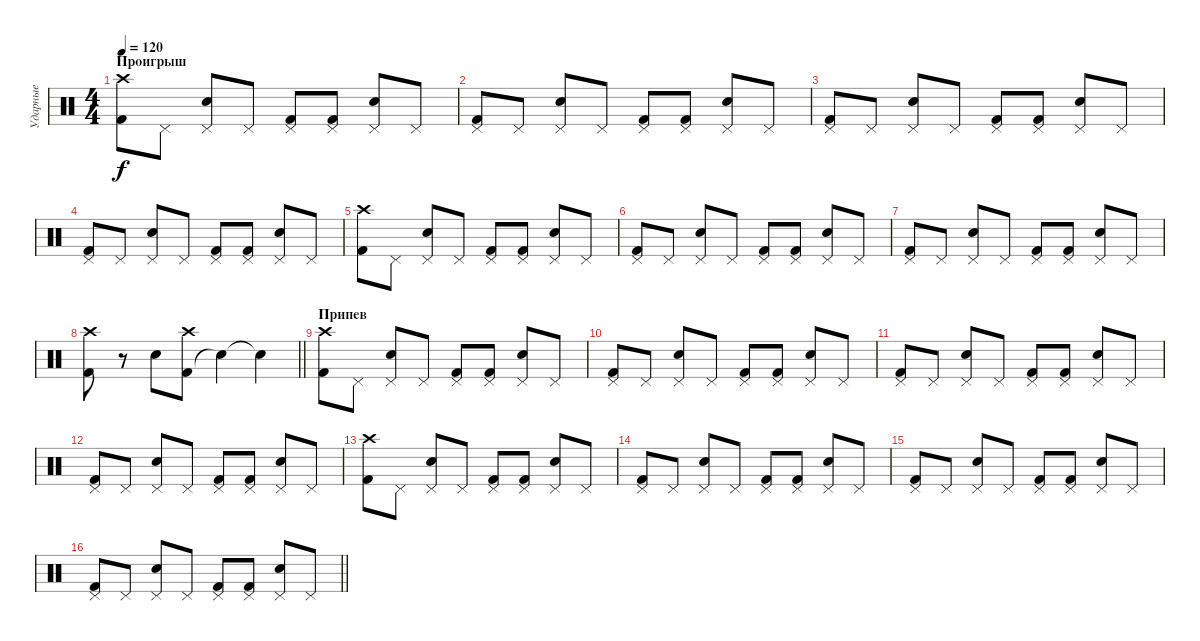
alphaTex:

\track ("Ударные" "Ударные") {instrument percussion}
\staff {score}
\articulation defaults
\ts (4 4)
\section ("" "Проигрыш")
\tempo 120
\clef neutral
\ks c
("Kick (hit) 2" "Crash high (hit)").8{dy f} "Pedal Hi-Hat (hit)".8 ("Electric Snare (hit)" "Pedal Hi-Hat (hit)").8 "Pedal Hi-Hat (hit)".8 ("Kick (hit) 2" "Pedal Hi-Hat (hit)").8 ("Kick (hit) 2" "Pedal Hi-Hat (hit)").8 ("Electric Snare (hit)" "Pedal Hi-Hat (hit)").8 "Pedal Hi-Hat (hit)".8 |
("Kick (hit) 2" "Pedal Hi-Hat (hit)").8 "Pedal Hi-Hat (hit)".8 ("Electric Snare (hit)" "Pedal Hi-Hat (hit)").8 "Pedal Hi-Hat (hit)".8 ("Kick (hit) 2" "Pedal Hi-Hat (hit)").8 ("Kick (hit) 2" "Pedal Hi-Hat (hit)").8 ("Electric Snare (hit)" "Pedal Hi-Hat (hit)").8 "Pedal Hi-Hat (hit)".8 |
("Kick (hit) 2" "Pedal Hi-Hat (hit)").8 "Pedal Hi-Hat (hit)".8 ("Electric Snare (hit)" "Pedal Hi-Hat (hit)").8 "Pedal Hi-Hat (hit)".8 ("Kick (hit) 2" "Pedal Hi-Hat (hit)").8 ("Kick (hit) 2" "Pedal Hi-Hat (hit)").8 ("Electric Snare (hit)" "Pedal Hi-Hat (hit)").8 "Pedal Hi-Hat (hit)".8 |
("Kick (hit) 2" "Pedal Hi-Hat (hit)").8 "Pedal Hi-Hat (hit)".8 ("Electric Snare (hit)" "Pedal Hi-Hat (hit)").8 "Pedal Hi-Hat (hit)".8 ("Kick (hit) 2" "Pedal Hi-Hat (hit)").8 ("Kick (hit) 2" "Pedal Hi-Hat (hit)").8 ("Electric Snare (hit)" "Pedal Hi-Hat (hit)").8 "Pedal Hi-Hat (hit)".8 |
("Kick (hit) 2" "Crash high (hit)").8 "Pedal Hi-Hat (hit)".8 ("Electric Snare (hit)" "Pedal Hi-Hat (hit)").8 "Pedal Hi-Hat (hit)".8 ("Kick (hit) 2" "Pedal Hi-Hat (hit)").8 ("Kick (hit) 2" "Pedal Hi-Hat (hit)").8 ("Electric Snare (hit)" "Pedal Hi-Hat (hit)").8 "Pedal Hi-Hat (hit)".8 |
("Kick (hit) 2" "Pedal Hi-Hat (hit)").8 "Pedal Hi-Hat (hit)".8 ("Electric Snare (hit)" "Pedal Hi-Hat (hit)").8 "Pedal Hi-Hat (hit)".8 ("Kick (hit) 2" "Pedal Hi-Hat (hit)").8 ("Kick (hit) 2" "Pedal Hi-Hat (hit)").8 ("Electric Snare (hit)" "Pedal Hi-Hat (hit)").8 "Pedal Hi-Hat (hit)".8 |
("Kick (hit) 2" "Pedal Hi-Hat (hit)").8 "Pedal Hi-Hat (hit)".8 ("Electric Snare (hit)" "Pedal Hi-Hat (hit)").8 "Pedal Hi-Hat (hit)".8 ("Kick (hit) 2" "Pedal Hi-Hat (hit)").8 ("Kick (hit) 2" "Pedal Hi-Hat (hit)").8 ("Electric Snare (hit)" "Pedal Hi-Hat (hit)").8 "Pedal Hi-Hat (hit)".8 |
\barLineRight lightlight
("Kick (hit) 2" "Crash high (hit)").8 r.8 "Electric Snare (hit)".8 ("Kick (hit) 2" "Crash high (hit)").8 "Snare (hit)"{t}.4 "Snare (hit)"{t}.4 |
\section ("" "Припев")
("Kick (hit) 2" "Crash high (hit)").8 "Pedal Hi-Hat (hit)".8 ("Electric Snare (hit)" "Pedal Hi-Hat (hit)").8 "Pedal Hi-Hat (hit)".8 ("Kick (hit) 2" "Pedal Hi-Hat (hit)").8 ("Kick (hit) 2" "Pedal Hi-Hat (hit)").8 ("Electric Snare (hit)" "Pedal Hi-Hat (hit)").8 "Pedal Hi-Hat (hit)".8 |
("Kick (hit) 2" "Pedal Hi-Hat (hit)").8 "Pedal Hi-Hat (hit)".8 ("Electric Snare (hit)" "Pedal Hi-Hat (hit)").8 "Pedal Hi-Hat (hit)".8 ("Kick (hit) 2" "Pedal Hi-Hat (hit)").8 ("Kick (hit) 2" "Pedal Hi-Hat (hit)").8 ("Electric Snare (hit)" "Pedal Hi-Hat (hit)").8 "Pedal Hi-Hat (hit)".8 |
("Kick (hit) 2" "Pedal Hi-Hat (hit)").8 "Pedal Hi-Hat (hit)".8 ("Electric Snare (hit)" "Pedal Hi-Hat (hit)").8 "Pedal Hi-Hat (hit)".8 ("Kick (hit) 2" "Pedal Hi-Hat (hit)").8 ("Kick (hit) 2" "Pedal Hi-Hat (hit)").8 ("Electric Snare (hit)" "Pedal Hi-Hat (hit)").8 "Pedal Hi-Hat (hit)".8 |
("Kick (hit) 2" "Pedal Hi-Hat (hit)").8 "Pedal Hi-Hat (hit)".8 ("Electric Snare (hit)" "Pedal Hi-Hat (hit)").8 "Pedal Hi-Hat (hit)".8 ("Kick (hit) 2" "Pedal Hi-Hat (hit)").8 ("Kick (hit) 2" "Pedal Hi-Hat (hit)").8 ("Electric Snare (hit)" "Pedal Hi-Hat (hit)").8 "Pedal Hi-Hat (hit)".8 |
("Kick (hit) 2" "Crash high (hit)").8 "Pedal Hi-Hat (hit)".8 ("Electric Snare (hit)" "Pedal Hi-Hat (hit)").8 "Pedal Hi-Hat (hit)".8 ("Kick (hit) 2" "Pedal Hi-Hat (hit)").8 ("Kick (hit) 2" "Pedal Hi-Hat (hit)").8 ("Electric Snare (hit)" "Pedal Hi-Hat (hit)").8 "Pedal Hi-Hat (hit)".8 |
("Kick (hit) 2" "Pedal Hi-Hat (hit)").8 "Pedal Hi-Hat (hit)".8 ("Electric Snare (hit)" "Pedal Hi-Hat (hit)").8 "Pedal Hi-Hat (hit)".8 ("Kick (hit) 2" "Pedal Hi-Hat (hit)").8 ("Kick (hit) 2" "Pedal Hi-Hat (hit)").8 ("Electric Snare (hit)" "Pedal Hi-Hat (hit)").8 "Pedal Hi-Hat (hit)".8 |
("Kick (hit) 2" "Pedal Hi-Hat (hit)").8 "Pedal Hi-Hat (hit)".8 ("Electric Snare (hit)" "Pedal Hi-Hat (hit)").8 "Pedal Hi-Hat (hit)".8 ("Kick (hit) 2" "Pedal Hi-Hat (hit)").8 ("Kick (hit) 2" "Pedal Hi-Hat (hit)").8 ("Electric Snare (hit)" "Pedal Hi-Hat (hit)").8 "Pedal Hi-Hat (hit)".8 |
\barLineRight lightlight
("Kick (hit) 2" "Pedal Hi-Hat (hit)").8 "Pedal Hi-Hat (hit)".8 ("Electric Snare (hit)" "Pedal Hi-Hat (hit)").8 "Pedal Hi-Hat (hit)".8 ("Kick (hit) 2" "Pedal Hi-Hat (hit)").8 ("Kick (hit) 2" "Pedal Hi-Hat (hit)").8 ("Electric Snare (hit)" "Pedal Hi-Hat (hit)").8 "Pedal Hi-Hat (hit)".8
